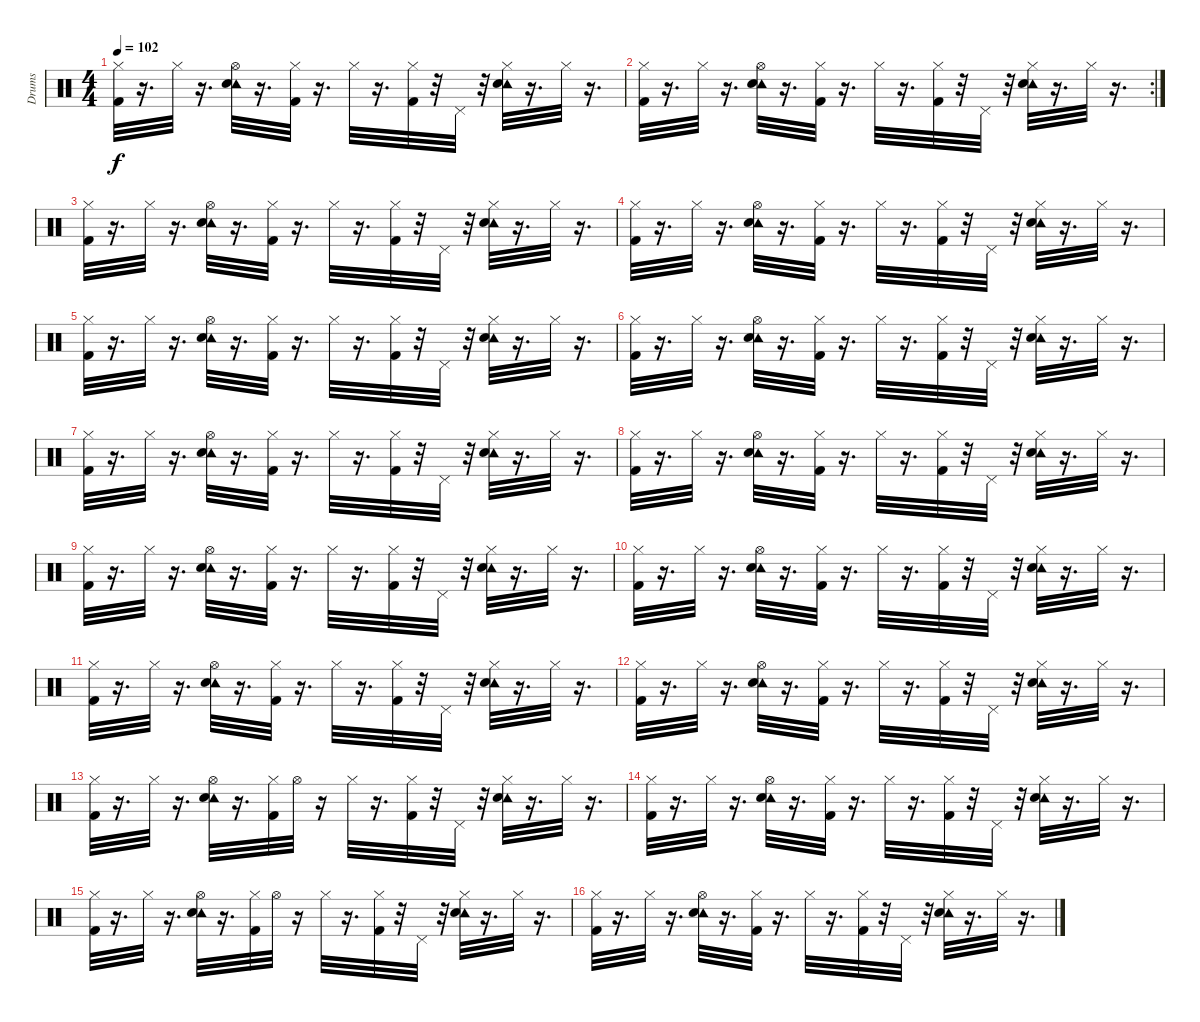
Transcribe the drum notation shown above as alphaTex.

\track ("Drums" "Drums") {instrument percussion}
\staff {score}
\articulation defaults
\ts (4 4)
\tempo 102
\clef neutral
\ks c
("Hi-Hat (closed)" "Kick (hit) 2").32{dy f} r.16{d} "Hi-Hat (closed)".32 r.16{d} ("Tambourine (hit)" "Hi-Hat (open)" "Electric Snare (hit)").32 r.16{d} ("Hi-Hat (closed)" "Kick (hit) 2").32 r.16{d} "Hi-Hat (closed)".32 r.16{d} ("Hi-Hat (closed)" "Kick (hit) 2").32 r.32 "Pedal Hi-Hat (hit)".32 r.32 ("Tambourine (hit)" "Hi-Hat (closed)" "Electric Snare (hit)").32 r.16{d} "Hi-Hat (closed)".32 r.16{d} |
\rc 2
("Hi-Hat (closed)" "Kick (hit) 2").32 r.16{d} "Hi-Hat (closed)".32 r.16{d} ("Tambourine (hit)" "Hi-Hat (open)" "Electric Snare (hit)").32 r.16{d} ("Hi-Hat (closed)" "Kick (hit) 2").32 r.16{d} "Hi-Hat (closed)".32 r.16{d} ("Hi-Hat (closed)" "Kick (hit) 2").32 r.32 "Pedal Hi-Hat (hit)".32 r.32 ("Tambourine (hit)" "Hi-Hat (closed)" "Electric Snare (hit)").32 r.16{d} "Hi-Hat (closed)".32 r.16{d} |
("Hi-Hat (closed)" "Kick (hit) 2").32 r.16{d} "Hi-Hat (closed)".32 r.16{d} ("Tambourine (hit)" "Hi-Hat (open)" "Electric Snare (hit)").32 r.16{d} ("Hi-Hat (closed)" "Kick (hit) 2").32 r.16{d} "Hi-Hat (closed)".32 r.16{d} ("Hi-Hat (closed)" "Kick (hit) 2").32 r.32 "Pedal Hi-Hat (hit)".32 r.32 ("Tambourine (hit)" "Hi-Hat (closed)" "Electric Snare (hit)").32 r.16{d} "Hi-Hat (closed)".32 r.16{d} |
("Hi-Hat (closed)" "Kick (hit) 2").32 r.16{d} "Hi-Hat (closed)".32 r.16{d} ("Tambourine (hit)" "Hi-Hat (open)" "Electric Snare (hit)").32 r.16{d} ("Hi-Hat (closed)" "Kick (hit) 2").32 r.16{d} "Hi-Hat (closed)".32 r.16{d} ("Hi-Hat (closed)" "Kick (hit) 2").32 r.32 "Pedal Hi-Hat (hit)".32 r.32 ("Tambourine (hit)" "Hi-Hat (closed)" "Electric Snare (hit)").32 r.16{d} "Hi-Hat (closed)".32 r.16{d} |
("Hi-Hat (closed)" "Kick (hit) 2").32 r.16{d} "Hi-Hat (closed)".32 r.16{d} ("Tambourine (hit)" "Hi-Hat (open)" "Electric Snare (hit)").32 r.16{d} ("Hi-Hat (closed)" "Kick (hit) 2").32 r.16{d} "Hi-Hat (closed)".32 r.16{d} ("Hi-Hat (closed)" "Kick (hit) 2").32 r.32 "Pedal Hi-Hat (hit)".32 r.32 ("Tambourine (hit)" "Hi-Hat (closed)" "Electric Snare (hit)").32 r.16{d} "Hi-Hat (closed)".32 r.16{d} |
("Hi-Hat (closed)" "Kick (hit) 2").32 r.16{d} "Hi-Hat (closed)".32 r.16{d} ("Tambourine (hit)" "Hi-Hat (open)" "Electric Snare (hit)").32 r.16{d} ("Hi-Hat (closed)" "Kick (hit) 2").32 r.16{d} "Hi-Hat (closed)".32 r.16{d} ("Hi-Hat (closed)" "Kick (hit) 2").32 r.32 "Pedal Hi-Hat (hit)".32 r.32 ("Tambourine (hit)" "Hi-Hat (closed)" "Electric Snare (hit)").32 r.16{d} "Hi-Hat (closed)".32 r.16{d} |
("Hi-Hat (closed)" "Kick (hit) 2").32 r.16{d} "Hi-Hat (closed)".32 r.16{d} ("Tambourine (hit)" "Hi-Hat (open)" "Electric Snare (hit)").32 r.16{d} ("Hi-Hat (closed)" "Kick (hit) 2").32 r.16{d} "Hi-Hat (closed)".32 r.16{d} ("Hi-Hat (closed)" "Kick (hit) 2").32 r.32 "Pedal Hi-Hat (hit)".32 r.32 ("Tambourine (hit)" "Hi-Hat (closed)" "Electric Snare (hit)").32 r.16{d} "Hi-Hat (closed)".32 r.16{d} |
("Hi-Hat (closed)" "Kick (hit) 2").32 r.16{d} "Hi-Hat (closed)".32 r.16{d} ("Tambourine (hit)" "Hi-Hat (open)" "Electric Snare (hit)").32 r.16{d} ("Hi-Hat (closed)" "Kick (hit) 2").32 r.16{d} "Hi-Hat (closed)".32 r.16{d} ("Hi-Hat (closed)" "Kick (hit) 2").32 r.32 "Pedal Hi-Hat (hit)".32 r.32 ("Tambourine (hit)" "Hi-Hat (closed)" "Electric Snare (hit)").32 r.16{d} "Hi-Hat (closed)".32 r.16{d} |
("Hi-Hat (closed)" "Kick (hit) 2").32 r.16{d} "Hi-Hat (closed)".32 r.16{d} ("Tambourine (hit)" "Hi-Hat (open)" "Electric Snare (hit)").32 r.16{d} ("Hi-Hat (closed)" "Kick (hit) 2").32 r.16{d} "Hi-Hat (closed)".32 r.16{d} ("Hi-Hat (closed)" "Kick (hit) 2").32 r.32 "Pedal Hi-Hat (hit)".32 r.32 ("Tambourine (hit)" "Hi-Hat (closed)" "Electric Snare (hit)").32 r.16{d} "Hi-Hat (closed)".32 r.16{d} |
("Hi-Hat (closed)" "Kick (hit) 2").32 r.16{d} "Hi-Hat (closed)".32 r.16{d} ("Tambourine (hit)" "Hi-Hat (open)" "Electric Snare (hit)").32 r.16{d} ("Hi-Hat (closed)" "Kick (hit) 2").32 r.16{d} "Hi-Hat (closed)".32 r.16{d} ("Hi-Hat (closed)" "Kick (hit) 2").32 r.32 "Pedal Hi-Hat (hit)".32 r.32 ("Tambourine (hit)" "Hi-Hat (closed)" "Electric Snare (hit)").32 r.16{d} "Hi-Hat (closed)".32 r.16{d} |
("Hi-Hat (closed)" "Kick (hit) 2").32 r.16{d} "Hi-Hat (closed)".32 r.16{d} ("Tambourine (hit)" "Hi-Hat (open)" "Electric Snare (hit)").32 r.16{d} ("Hi-Hat (closed)" "Kick (hit) 2").32 r.16{d} "Hi-Hat (closed)".32 r.16{d} ("Hi-Hat (closed)" "Kick (hit) 2").32 r.32 "Pedal Hi-Hat (hit)".32 r.32 ("Tambourine (hit)" "Hi-Hat (closed)" "Electric Snare (hit)").32 r.16{d} "Hi-Hat (closed)".32 r.16{d} |
("Hi-Hat (closed)" "Kick (hit) 2").32 r.16{d} "Hi-Hat (closed)".32 r.16{d} ("Tambourine (hit)" "Hi-Hat (open)" "Electric Snare (hit)").32 r.16{d} ("Hi-Hat (closed)" "Kick (hit) 2").32 r.16{d} "Hi-Hat (closed)".32 r.16{d} ("Hi-Hat (closed)" "Kick (hit) 2").32 r.32 "Pedal Hi-Hat (hit)".32 r.32 ("Tambourine (hit)" "Hi-Hat (closed)" "Electric Snare (hit)").32 r.16{d} "Hi-Hat (closed)".32 r.16{d} |
("Hi-Hat (closed)" "Kick (hit) 2").32 r.16{d} "Hi-Hat (closed)".32 r.16{d} ("Tambourine (hit)" "Hi-Hat (open)" "Electric Snare (hit)").32 r.16{d} ("Hi-Hat (closed)" "Kick (hit) 2").32 "Hi-Hat (open)".32 r.16 "Hi-Hat (closed)".32 r.16{d} ("Hi-Hat (closed)" "Kick (hit) 2").32 r.32 "Pedal Hi-Hat (hit)".32 r.32 ("Tambourine (hit)" "Hi-Hat (closed)" "Electric Snare (hit)").32 r.16{d} "Hi-Hat (closed)".32 r.16{d} |
("Hi-Hat (closed)" "Kick (hit) 2").32 r.16{d} "Hi-Hat (closed)".32 r.16{d} ("Tambourine (hit)" "Hi-Hat (open)" "Electric Snare (hit)").32 r.16{d} ("Hi-Hat (closed)" "Kick (hit) 2").32 r.16{d} "Hi-Hat (closed)".32 r.16{d} ("Hi-Hat (closed)" "Kick (hit) 2").32 r.32 "Pedal Hi-Hat (hit)".32 r.32 ("Tambourine (hit)" "Hi-Hat (closed)" "Electric Snare (hit)").32 r.16{d} "Hi-Hat (closed)".32 r.16{d} |
("Hi-Hat (closed)" "Kick (hit) 2").32 r.16{d} "Hi-Hat (closed)".32 r.16{d} ("Tambourine (hit)" "Hi-Hat (open)" "Electric Snare (hit)").32 r.16{d} ("Hi-Hat (closed)" "Kick (hit) 2").32 "Hi-Hat (open)".32 r.16 "Hi-Hat (closed)".32 r.16{d} ("Hi-Hat (closed)" "Kick (hit) 2").32 r.32 "Pedal Hi-Hat (hit)".32 r.32 ("Tambourine (hit)" "Hi-Hat (closed)" "Electric Snare (hit)").32 r.16{d} "Hi-Hat (closed)".32 r.16{d} |
("Hi-Hat (closed)" "Kick (hit) 2").32 r.16{d} "Hi-Hat (closed)".32 r.16{d} ("Tambourine (hit)" "Hi-Hat (open)" "Electric Snare (hit)").32 r.16{d} ("Hi-Hat (closed)" "Kick (hit) 2").32 r.16{d} "Hi-Hat (closed)".32 r.16{d} ("Hi-Hat (closed)" "Kick (hit) 2").32 r.32 "Pedal Hi-Hat (hit)".32 r.32 ("Tambourine (hit)" "Hi-Hat (closed)" "Electric Snare (hit)").32 r.16{d} "Hi-Hat (closed)".32 r.16{d}
